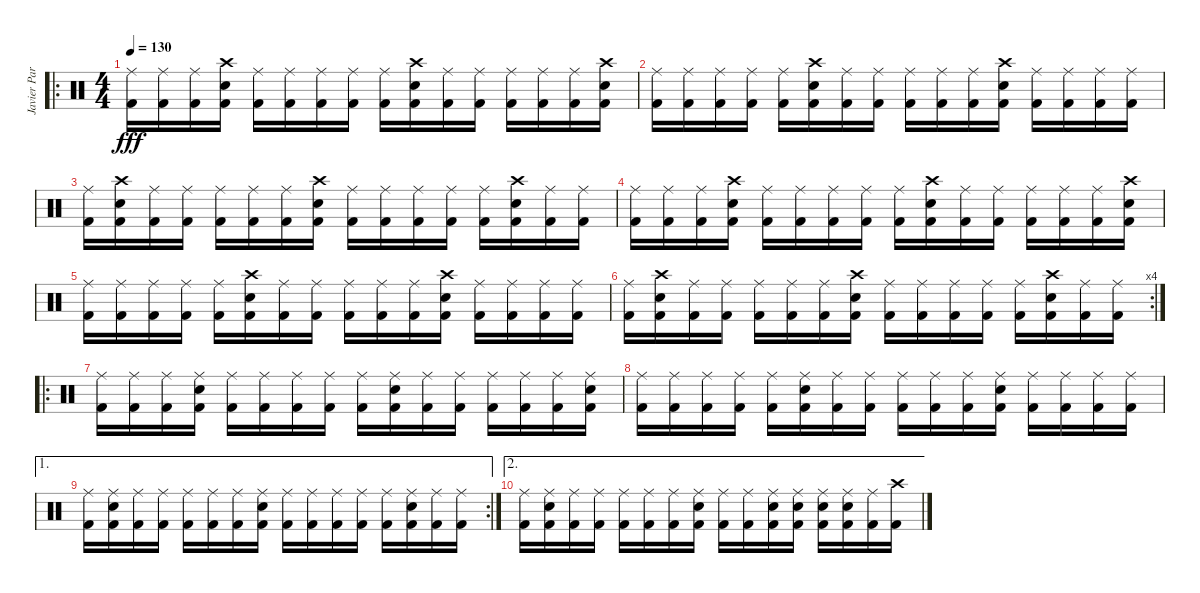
\track ("Javier Partida" "Javier Par") {instrument percussion}
\staff {score}
\articulation defaults
\ro
\ts (4 4)
\tempo 130
\clef neutral
\ks c
("Ride (middle)" "Kick (hit) 2").16{dy fff} ("Ride (middle)" "Kick (hit) 2").16 ("Ride (middle)" "Kick (hit) 2").16 ("Crash high (hit)" "Electric Snare (hit)" "Kick (hit) 2").16 ("Ride (middle)" "Kick (hit) 2").16 ("Ride (middle)" "Kick (hit) 2").16 ("Ride (middle)" "Kick (hit) 2").16 ("Ride (middle)" "Kick (hit) 2").16 ("Ride (middle)" "Kick (hit) 2").16 ("Crash high (hit)" "Electric Snare (hit)" "Kick (hit) 2").16 ("Ride (middle)" "Kick (hit) 2").16 ("Ride (middle)" "Kick (hit) 2").16 ("Ride (middle)" "Kick (hit) 2").16 ("Ride (middle)" "Kick (hit) 2").16 ("Ride (middle)" "Kick (hit) 2").16 ("Crash high (hit)" "Electric Snare (hit)" "Kick (hit) 2").16 |
("Ride (middle)" "Kick (hit) 2").16 ("Ride (middle)" "Kick (hit) 2").16 ("Ride (middle)" "Kick (hit) 2").16 ("Ride (middle)" "Kick (hit) 2").16 ("Ride (middle)" "Kick (hit) 2").16 ("Crash high (hit)" "Electric Snare (hit)" "Kick (hit) 2").16 ("Ride (middle)" "Kick (hit) 2").16 ("Ride (middle)" "Kick (hit) 2").16 ("Ride (middle)" "Kick (hit) 2").16 ("Ride (middle)" "Kick (hit) 2").16 ("Ride (middle)" "Kick (hit) 2").16 ("Crash high (hit)" "Electric Snare (hit)" "Kick (hit) 2").16 ("Ride (middle)" "Kick (hit) 2").16 ("Ride (middle)" "Kick (hit) 2").16 ("Ride (middle)" "Kick (hit) 2").16 ("Ride (middle)" "Kick (hit) 2").16 |
("Ride (middle)" "Kick (hit) 2").16 ("Crash high (hit)" "Electric Snare (hit)" "Kick (hit) 2").16 ("Ride (middle)" "Kick (hit) 2").16 ("Ride (middle)" "Kick (hit) 2").16 ("Ride (middle)" "Kick (hit) 2").16 ("Ride (middle)" "Kick (hit) 2").16 ("Ride (middle)" "Kick (hit) 2").16 ("Crash high (hit)" "Electric Snare (hit)" "Kick (hit) 2").16 ("Ride (middle)" "Kick (hit) 2").16 ("Ride (middle)" "Kick (hit) 2").16 ("Ride (middle)" "Kick (hit) 2").16 ("Ride (middle)" "Kick (hit) 2").16 ("Ride (middle)" "Kick (hit) 2").16 ("Crash high (hit)" "Electric Snare (hit)" "Kick (hit) 2").16 ("Ride (middle)" "Kick (hit) 2").16 ("Ride (middle)" "Kick (hit) 2").16 |
("Ride (middle)" "Kick (hit) 2").16 ("Ride (middle)" "Kick (hit) 2").16 ("Ride (middle)" "Kick (hit) 2").16 ("Crash high (hit)" "Electric Snare (hit)" "Kick (hit) 2").16 ("Ride (middle)" "Kick (hit) 2").16 ("Ride (middle)" "Kick (hit) 2").16 ("Ride (middle)" "Kick (hit) 2").16 ("Ride (middle)" "Kick (hit) 2").16 ("Ride (middle)" "Kick (hit) 2").16 ("Crash high (hit)" "Electric Snare (hit)" "Kick (hit) 2").16 ("Ride (middle)" "Kick (hit) 2").16 ("Ride (middle)" "Kick (hit) 2").16 ("Ride (middle)" "Kick (hit) 2").16 ("Ride (middle)" "Kick (hit) 2").16 ("Ride (middle)" "Kick (hit) 2").16 ("Crash high (hit)" "Electric Snare (hit)" "Kick (hit) 2").16 |
("Ride (middle)" "Kick (hit) 2").16 ("Ride (middle)" "Kick (hit) 2").16 ("Ride (middle)" "Kick (hit) 2").16 ("Ride (middle)" "Kick (hit) 2").16 ("Ride (middle)" "Kick (hit) 2").16 ("Crash high (hit)" "Electric Snare (hit)" "Kick (hit) 2").16 ("Ride (middle)" "Kick (hit) 2").16 ("Ride (middle)" "Kick (hit) 2").16 ("Ride (middle)" "Kick (hit) 2").16 ("Ride (middle)" "Kick (hit) 2").16 ("Ride (middle)" "Kick (hit) 2").16 ("Crash high (hit)" "Electric Snare (hit)" "Kick (hit) 2").16 ("Ride (middle)" "Kick (hit) 2").16 ("Ride (middle)" "Kick (hit) 2").16 ("Ride (middle)" "Kick (hit) 2").16 ("Ride (middle)" "Kick (hit) 2").16 |
\rc 4
("Ride (middle)" "Kick (hit) 2").16 ("Crash high (hit)" "Electric Snare (hit)" "Kick (hit) 2").16 ("Ride (middle)" "Kick (hit) 2").16 ("Ride (middle)" "Kick (hit) 2").16 ("Ride (middle)" "Kick (hit) 2").16 ("Ride (middle)" "Kick (hit) 2").16 ("Ride (middle)" "Kick (hit) 2").16 ("Crash high (hit)" "Electric Snare (hit)" "Kick (hit) 2").16 ("Ride (middle)" "Kick (hit) 2").16 ("Ride (middle)" "Kick (hit) 2").16 ("Ride (middle)" "Kick (hit) 2").16 ("Ride (middle)" "Kick (hit) 2").16 ("Ride (middle)" "Kick (hit) 2").16 ("Crash high (hit)" "Electric Snare (hit)" "Kick (hit) 2").16 ("Ride (middle)" "Kick (hit) 2").16 ("Ride (middle)" "Kick (hit) 2").16 |
\ro
("Ride (middle)" "Kick (hit) 2").16 ("Ride (middle)" "Kick (hit) 2").16 ("Ride (middle)" "Kick (hit) 2").16 ("Ride (middle)" "Electric Snare (hit)" "Kick (hit) 2").16 ("Ride (middle)" "Kick (hit) 2").16 ("Ride (middle)" "Kick (hit) 2").16 ("Ride (middle)" "Kick (hit) 2").16 ("Ride (middle)" "Kick (hit) 2").16 ("Ride (middle)" "Kick (hit) 2").16 ("Ride (middle)" "Electric Snare (hit)" "Kick (hit) 2").16 ("Ride (middle)" "Kick (hit) 2").16 ("Ride (middle)" "Kick (hit) 2").16 ("Ride (middle)" "Kick (hit) 2").16 ("Ride (middle)" "Kick (hit) 2").16 ("Ride (middle)" "Kick (hit) 2").16 ("Ride (middle)" "Electric Snare (hit)" "Kick (hit) 2").16 |
("Ride (middle)" "Kick (hit) 2").16 ("Ride (middle)" "Kick (hit) 2").16 ("Ride (middle)" "Kick (hit) 2").16 ("Ride (middle)" "Kick (hit) 2").16 ("Ride (middle)" "Kick (hit) 2").16 ("Ride (middle)" "Electric Snare (hit)" "Kick (hit) 2").16 ("Ride (middle)" "Kick (hit) 2").16 ("Ride (middle)" "Kick (hit) 2").16 ("Ride (middle)" "Kick (hit) 2").16 ("Ride (middle)" "Kick (hit) 2").16 ("Ride (middle)" "Kick (hit) 2").16 ("Ride (middle)" "Electric Snare (hit)" "Kick (hit) 2").16 ("Ride (middle)" "Kick (hit) 2").16 ("Ride (middle)" "Kick (hit) 2").16 ("Ride (middle)" "Kick (hit) 2").16 ("Ride (middle)" "Kick (hit) 2").16 |
\ae 1
\rc 2
("Ride (middle)" "Kick (hit) 2").16 ("Ride (middle)" "Electric Snare (hit)" "Kick (hit) 2").16 ("Ride (middle)" "Kick (hit) 2").16 ("Ride (middle)" "Kick (hit) 2").16 ("Ride (middle)" "Kick (hit) 2").16 ("Ride (middle)" "Kick (hit) 2").16 ("Ride (middle)" "Kick (hit) 2").16 ("Ride (middle)" "Electric Snare (hit)" "Kick (hit) 2").16 ("Ride (middle)" "Kick (hit) 2").16 ("Ride (middle)" "Kick (hit) 2").16 ("Ride (middle)" "Kick (hit) 2").16 ("Ride (middle)" "Kick (hit) 2").16 ("Ride (middle)" "Kick (hit) 2").16 ("Ride (middle)" "Electric Snare (hit)" "Kick (hit) 2").16 ("Ride (middle)" "Kick (hit) 2").16 ("Ride (middle)" "Kick (hit) 2").16 |
\ae 2
("Ride (middle)" "Kick (hit) 2").16 ("Ride (middle)" "Electric Snare (hit)" "Kick (hit) 2").16 ("Ride (middle)" "Kick (hit) 2").16 ("Ride (middle)" "Kick (hit) 2").16 ("Ride (middle)" "Kick (hit) 2").16 ("Ride (middle)" "Kick (hit) 2").16 ("Ride (middle)" "Kick (hit) 2").16 ("Ride (middle)" "Electric Snare (hit)" "Kick (hit) 2").16 ("Ride (middle)" "Kick (hit) 2").16 ("Ride (middle)" "Kick (hit) 2").16 ("Ride (middle)" "Electric Snare (hit)" "Kick (hit) 2").16 ("Ride (middle)" "Electric Snare (hit)" "Kick (hit) 2").16 ("Ride (middle)" "Electric Snare (hit)" "Kick (hit) 2").16 ("Ride (middle)" "Electric Snare (hit)" "Kick (hit) 2").16 ("Ride (middle)" "Kick (hit) 2").16 ("Crash high (hit)" "Kick (hit) 2").16
